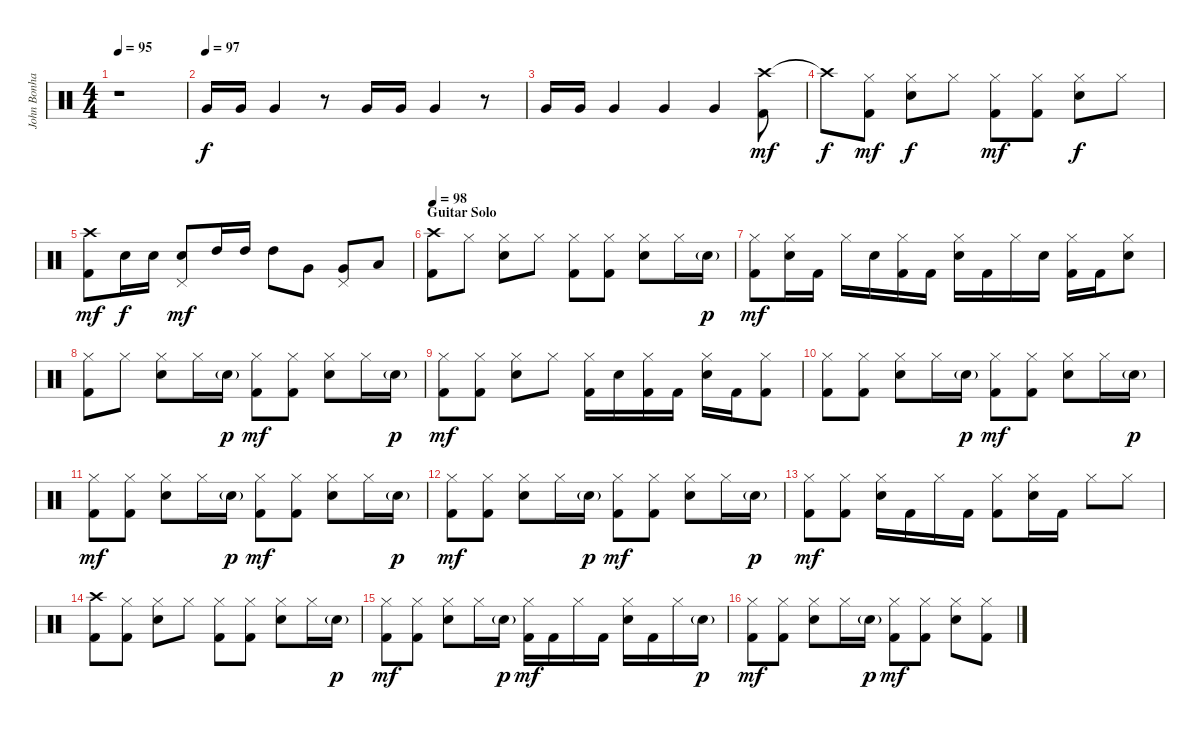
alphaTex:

\track ("John Bonham - Drums" "John Bonha") {instrument percussion}
\staff {score}
\articulation defaults
\ts (4 4)
\tempo 95
\clef neutral
\ks c
r.1{dy mf} |
\tempo (97)
"Very Low Tom (hit)".16{dy f} "Very Low Tom (hit)".16 "Very Low Tom (hit)".4 r.8 "Very Low Tom (hit)".16 "Very Low Tom (hit)".16 "Very Low Tom (hit)".4 r.8 |
"Very Low Tom (hit)".16 "Very Low Tom (hit)".16 "Very Low Tom (hit)".4 "Very Low Tom (hit)".4 "Very Low Tom (hit)".4 ("Crash high (hit)" "Kick (hit) 2").8{dy mf} |
"Crash high (hit)"{t}.8{dy f} ("Hi-Hat (closed)" "Kick (hit) 2").8{dy mf} ("Hi-Hat (closed)" "Snare (hit) 2").8{dy f} "Hi-Hat (closed)".8 ("Hi-Hat (closed)" "Kick (hit) 2").8{dy mf} ("Hi-Hat (closed)" "Kick (hit) 2").8 ("Hi-Hat (closed)" "Snare (hit) 2").8{dy f} "Hi-Hat (closed)".8 |
("Crash high (hit)" "Kick (hit) 2").8{dy mf} "Snare (hit) 2".16{dy f} "Snare (hit) 2".16 ("Snare (hit) 2" "Pedal Hi-Hat (hit)").8{dy mf} "High Tom (hit)".16 "High Tom (hit)".16 "High Tom (hit)".8 "Very Low Tom (hit)".8 ("Very Low Tom (hit)" "Pedal Hi-Hat (hit)").8 "Low Floor Tom (hit)".8 |
\section ("" "Guitar Solo")
\tempo 98
("Crash high (hit)" "Kick (hit) 2").8 "Hi-Hat (closed)".8 ("Hi-Hat (closed)" "Snare (hit) 2").8 "Hi-Hat (closed)".8 ("Hi-Hat (closed)" "Kick (hit) 2").8 ("Hi-Hat (closed)" "Kick (hit) 2").8 ("Hi-Hat (closed)" "Snare (hit) 2").8 "Hi-Hat (closed)".16 "Snare (hit) 2"{g}.16{dy p} |
("Hi-Hat (closed)" "Kick (hit) 2").8{dy mf} ("Hi-Hat (closed)" "Snare (hit) 2").16 "Kick (hit) 2".16 "Hi-Hat (closed)".16 "Snare (hit) 2".16 ("Hi-Hat (closed)" "Kick (hit) 2").16 "Kick (hit) 2".16 ("Hi-Hat (closed)" "Snare (hit) 2").16 "Kick (hit) 2".16 "Hi-Hat (closed)".16 "Snare (hit) 2".16 ("Hi-Hat (closed)" "Kick (hit) 2").16 "Kick (hit) 2".16 ("Hi-Hat (closed)" "Snare (hit) 2").8 |
("Hi-Hat (closed)" "Kick (hit) 2").8 "Hi-Hat (closed)".8 ("Hi-Hat (closed)" "Snare (hit) 2").8 "Hi-Hat (closed)".16 "Snare (hit) 2"{g}.16{dy p} ("Hi-Hat (closed)" "Kick (hit) 2").8{dy mf} ("Hi-Hat (closed)" "Kick (hit) 2").8 ("Hi-Hat (closed)" "Snare (hit) 2").8 "Hi-Hat (closed)".16 "Snare (hit) 2"{g}.16{dy p} |
("Hi-Hat (closed)" "Kick (hit) 2").8{dy mf} ("Hi-Hat (closed)" "Kick (hit) 2").8 ("Hi-Hat (closed)" "Snare (hit) 2").8 "Hi-Hat (closed)".8 ("Hi-Hat (closed)" "Kick (hit) 2").16 "Snare (hit) 2".16 ("Hi-Hat (closed)" "Kick (hit) 2").16 "Kick (hit) 2".16 ("Hi-Hat (closed)" "Snare (hit) 2").16 "Kick (hit) 2".16 ("Hi-Hat (closed)" "Kick (hit) 2").8 |
("Hi-Hat (closed)" "Kick (hit) 2").8 ("Hi-Hat (closed)" "Kick (hit) 2").8 ("Hi-Hat (closed)" "Snare (hit) 2").8 "Hi-Hat (closed)".16 "Snare (hit) 2"{g}.16{dy p} ("Hi-Hat (closed)" "Kick (hit) 2").8{dy mf} ("Hi-Hat (closed)" "Kick (hit) 2").8 ("Hi-Hat (closed)" "Snare (hit) 2").8 "Hi-Hat (closed)".16 "Snare (hit) 2"{g}.16{dy p} |
("Hi-Hat (closed)" "Kick (hit) 2").8{dy mf} ("Hi-Hat (closed)" "Kick (hit) 2").8 ("Hi-Hat (closed)" "Snare (hit) 2").8 "Hi-Hat (closed)".16 "Snare (hit) 2"{g}.16{dy p} ("Hi-Hat (closed)" "Kick (hit) 2").8{dy mf} ("Hi-Hat (closed)" "Kick (hit) 2").8 ("Hi-Hat (closed)" "Snare (hit) 2").8 "Hi-Hat (closed)".16 "Snare (hit) 2"{g}.16{dy p} |
("Hi-Hat (closed)" "Kick (hit) 2").8{dy mf} ("Hi-Hat (closed)" "Kick (hit) 2").8 ("Hi-Hat (closed)" "Snare (hit) 2").8 "Hi-Hat (closed)".16 "Snare (hit) 2"{g}.16{dy p} ("Hi-Hat (closed)" "Kick (hit) 2").8{dy mf} ("Hi-Hat (closed)" "Kick (hit) 2").8 ("Hi-Hat (closed)" "Snare (hit) 2").8 "Hi-Hat (closed)".16 "Snare (hit) 2"{g}.16{dy p} |
("Hi-Hat (closed)" "Kick (hit) 2").8{dy mf} ("Hi-Hat (closed)" "Kick (hit) 2").8 ("Hi-Hat (closed)" "Snare (hit) 2").16 "Kick (hit) 2".16 "Hi-Hat (closed)".16 "Kick (hit) 2".16 ("Hi-Hat (closed)" "Kick (hit) 2").8 ("Hi-Hat (closed)" "Snare (hit) 2").16 "Kick (hit) 2".16 "Hi-Hat (closed)".8 "Hi-Hat (closed)".8 |
("Crash high (hit)" "Kick (hit) 2").8 ("Hi-Hat (closed)" "Kick (hit) 2").8 ("Hi-Hat (closed)" "Snare (hit) 2").8 "Hi-Hat (closed)".8 ("Hi-Hat (closed)" "Kick (hit) 2").8 ("Hi-Hat (closed)" "Kick (hit) 2").8 ("Hi-Hat (closed)" "Snare (hit) 2").8 "Hi-Hat (closed)".16 "Snare (hit) 2"{g}.16{dy p} |
("Hi-Hat (closed)" "Kick (hit) 2").8{dy mf} ("Hi-Hat (closed)" "Kick (hit) 2").8 ("Hi-Hat (closed)" "Snare (hit) 2").8 "Hi-Hat (closed)".16 "Snare (hit) 2"{g}.16{dy p} ("Hi-Hat (closed)" "Kick (hit) 2").16{dy mf} "Kick (hit) 2".16 "Hi-Hat (closed)".16 "Kick (hit) 2".16 ("Hi-Hat (closed)" "Snare (hit) 2").16 "Kick (hit) 2".16 "Hi-Hat (closed)".16 "Snare (hit) 2"{g}.16{dy p} |
("Hi-Hat (closed)" "Kick (hit) 2").8{dy mf} ("Hi-Hat (closed)" "Kick (hit) 2").8 ("Hi-Hat (closed)" "Snare (hit) 2").8 "Hi-Hat (closed)".16 "Snare (hit) 2"{g}.16{dy p} ("Hi-Hat (closed)" "Kick (hit) 2").8{dy mf} ("Hi-Hat (closed)" "Kick (hit) 2").8 ("Hi-Hat (closed)" "Snare (hit) 2").8 ("Hi-Hat (closed)" "Kick (hit) 2").8
